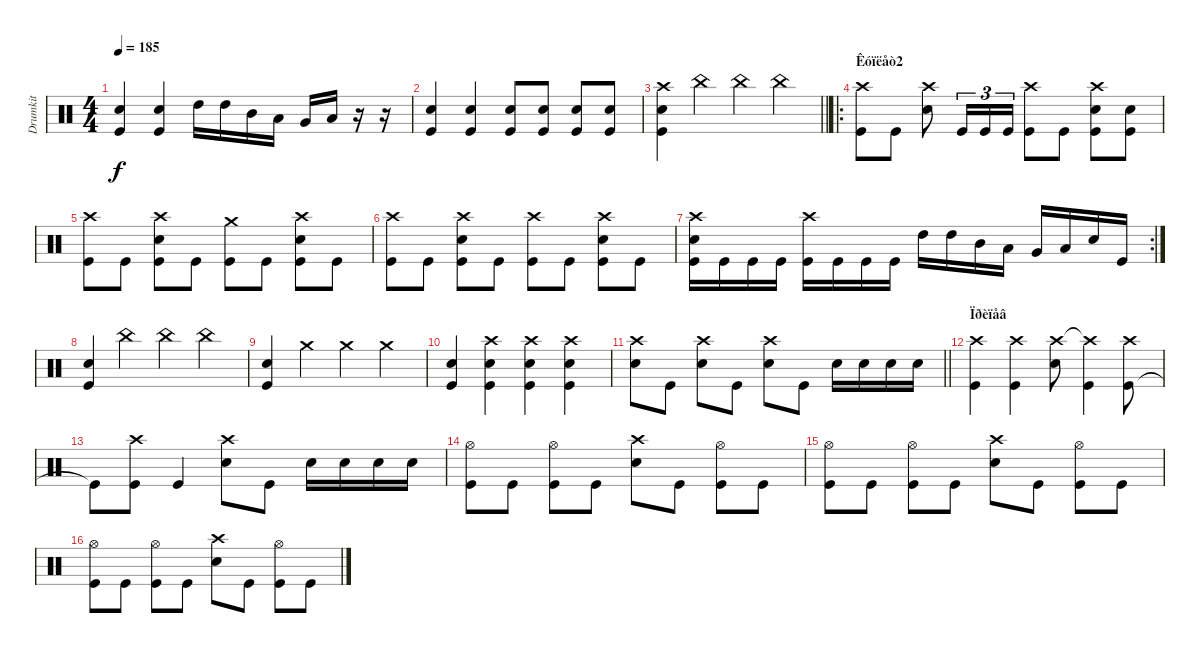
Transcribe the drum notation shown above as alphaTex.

\track ("Drumkit" "Drumkit") {instrument percussion}
\staff {score}
\articulation defaults
\ts (4 4)
\tempo 185
\clef neutral
\ks c
("Snare (hit) 2" "Kick (hit)").4{dy f} ("Snare (hit) 2" "Kick (hit)").4 "High Tom (hit)".16 "High Tom (hit)".16 "Mid Tom (hit)".16 "Low Tom (hit)".16 "Very Low Tom (hit)".16 "Low Floor Tom (hit)".16 r.16 r.16 |
("Snare (hit) 2" "Kick (hit)").4 ("Kick (hit)" "Snare (hit) 2").4 ("Kick (hit)" "Snare (hit) 2").8 ("Kick (hit)" "Snare (hit) 2").8 ("Kick (hit)" "Snare (hit) 2").8 ("Kick (hit)" "Snare (hit) 2").8 |
\barLineRight lightlight
("Crash high (hit)" "Kick (hit)" "Snare (hit) 2").4 "China (hit)".4 "China (hit)".4 "China (hit)".4 |
\ro
\section ("" "Êóïëåò2")
("Kick (hit)" "Crash high (hit)").8 "Kick (hit)".8 ("Snare (hit) 2" "Crash high (hit)").8 "Kick (hit)".16{tu (3 2)} "Kick (hit)".16{tu (3 2)} "Kick (hit)".16{tu (3 2)} ("Kick (hit)" "Crash high (hit)").8 "Kick (hit)".8 ("Snare (hit) 2" "Crash high (hit)" "Kick (hit)").8 ("Snare (hit) 2" "Kick (hit)").8 |
("Crash high (hit)" "Kick (hit)").8 "Kick (hit)".8 ("Crash high (hit)" "Snare (hit) 2" "Kick (hit)").8 "Kick (hit)".8 ("Crash medium (hit)" "Kick (hit)").8 "Kick (hit)".8 ("Crash high (hit)" "Snare (hit) 2" "Kick (hit)").8 "Kick (hit)".8 |
("Crash high (hit)" "Kick (hit)").8 "Kick (hit)".8 ("Crash high (hit)" "Snare (hit) 2" "Kick (hit)").8 "Kick (hit)".8 ("Crash high (hit)" "Kick (hit)").8 "Kick (hit)".8 ("Crash high (hit)" "Snare (hit) 2" "Kick (hit)").8 "Kick (hit)".8 |
\rc 2
("Snare (hit) 2" "Kick (hit)" "Crash high (hit)").16 "Kick (hit)".16 "Kick (hit)".16 "Kick (hit)".16 ("Kick (hit)" "Crash high (hit)").16 "Kick (hit)".16 "Kick (hit)".16 "Kick (hit)".16 "High Tom (hit)".16 "High Tom (hit)".16 "Mid Tom (hit)".16 "Low Tom (hit)".16 "Very Low Tom (hit)".16 "Low Floor Tom (hit)".16 "Snare (hit) 2".16 "Kick (hit)".16 |
("Snare (hit) 2" "Kick (hit)").4 "China (hit)".4 "China (hit)".4 "China (hit)".4 |
("Snare (hit) 2" "Kick (hit)").4 "Crash medium (hit)".4 "Crash medium (hit)".4 "Crash medium (hit)".4 |
("Snare (hit) 2" "Kick (hit)").4 ("Crash high (hit)" "Snare (hit) 2" "Kick (hit)").4 ("Crash high (hit)" "Snare (hit) 2" "Kick (hit)").4 ("Crash high (hit)" "Snare (hit) 2" "Kick (hit)").4 |
\barLineRight lightlight
("Snare (hit) 2" "Crash high (hit)").8 "Kick (hit)".8 ("Snare (hit) 2" "Crash high (hit)").8 "Kick (hit)".8 ("Snare (hit) 2" "Crash high (hit)").8 "Kick (hit)".8 "Snare (hit) 2".16 "Snare (hit) 2".16 "Snare (hit) 2".16 "Snare (hit) 2".16 |
\section ("" "Ïðèïåâ")
("Kick (hit)" "Crash high (hit)").4 ("Kick (hit)" "Crash high (hit)").4 ("Snare (hit) 2" "Crash high (hit)").8 ("Kick (hit)" "Crash high (hit)"{t}).4 ("Kick (hit)" "Crash high (hit)").8 |
"Kick (hit)"{t}.8 ("Kick (hit)" "Crash high (hit)").8 "Kick (hit)".4 ("Snare (hit) 2" "Crash high (hit)").8 "Kick (hit)".8 "Snare (hit) 2".16 "Snare (hit) 2".16 "Snare (hit) 2".16 "Snare (hit) 2".16 |
("Kick (hit)" "Hi-Hat (open)").8 "Kick (hit)".8 ("Kick (hit)" "Hi-Hat (open)").8 "Kick (hit)".8 ("Snare (hit) 2" "Crash high (hit)").8 "Kick (hit)".8 ("Kick (hit)" "Hi-Hat (open)").8 "Kick (hit)".8 |
("Kick (hit)" "Hi-Hat (open)").8 "Kick (hit)".8 ("Kick (hit)" "Hi-Hat (open)").8 "Kick (hit)".8 ("Snare (hit) 2" "Crash high (hit)").8 "Kick (hit)".8 ("Kick (hit)" "Hi-Hat (open)").8 "Kick (hit)".8 |
("Kick (hit)" "Hi-Hat (open)").8 "Kick (hit)".8 ("Kick (hit)" "Hi-Hat (open)").8 "Kick (hit)".8 ("Snare (hit) 2" "Crash high (hit)").8 "Kick (hit)".8 ("Kick (hit)" "Hi-Hat (open)").8 "Kick (hit)".8
